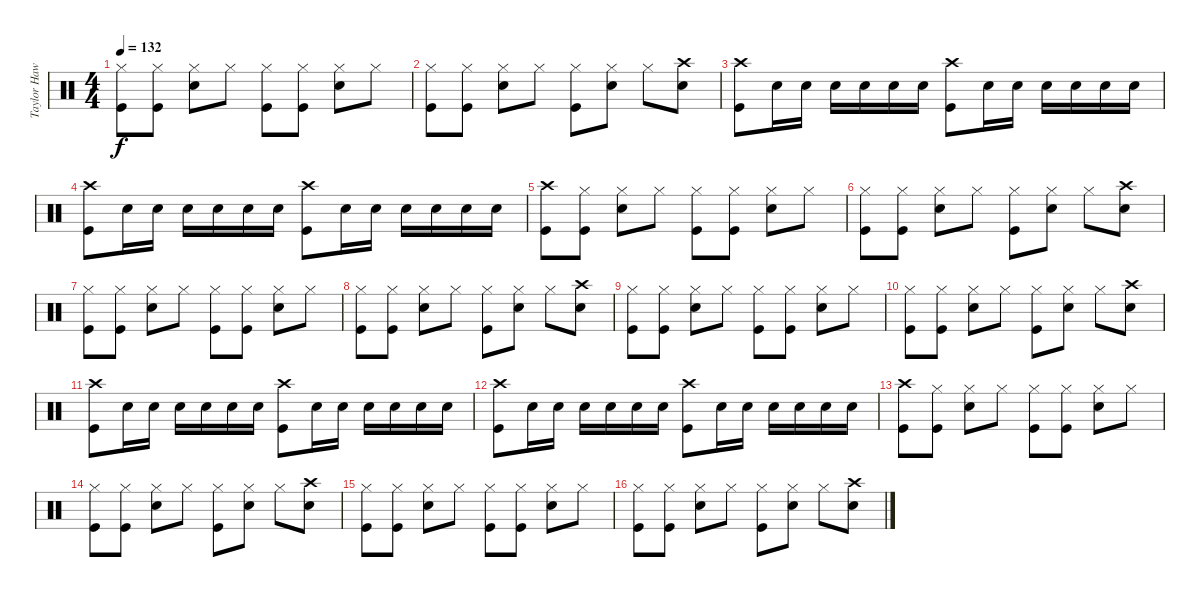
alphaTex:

\track ("Taylor Hawkins (Drums)" "Taylor Haw") {instrument percussion}
\staff {score}
\articulation defaults
\ts (4 4)
\tempo 132
\clef neutral
\ks c
("Kick (hit)" "Hi-Hat (closed)").8{dy f} ("Hi-Hat (closed)" "Kick (hit)").8 ("Hi-Hat (closed)" "Snare (hit) 2").8 "Hi-Hat (closed)".8 ("Hi-Hat (closed)" "Kick (hit)").8 ("Hi-Hat (closed)" "Kick (hit)").8 ("Hi-Hat (closed)" "Snare (hit) 2").8 "Hi-Hat (closed)".8 |
("Hi-Hat (closed)" "Kick (hit)").8 ("Hi-Hat (closed)" "Kick (hit)").8 ("Hi-Hat (closed)" "Snare (hit) 2").8 "Hi-Hat (closed)".8 ("Hi-Hat (closed)" "Kick (hit)").8 ("Hi-Hat (closed)" "Snare (hit) 2").8 "Hi-Hat (closed)".8 ("Crash high (hit)" "Snare (hit) 2").8 |
("Crash high (hit)" "Kick (hit)").8 "Snare (hit) 2".16 "Snare (hit) 2".16 "Snare (hit) 2".16 "Snare (hit) 2".16 "Snare (hit) 2".16 "Snare (hit) 2".16 ("Crash high (hit)" "Kick (hit)").8 "Snare (hit) 2".16 "Snare (hit) 2".16 "Snare (hit) 2".16 "Snare (hit) 2".16 "Snare (hit) 2".16 "Snare (hit) 2".16 |
("Crash high (hit)" "Kick (hit)").8 "Snare (hit) 2".16 "Snare (hit) 2".16 "Snare (hit) 2".16 "Snare (hit) 2".16 "Snare (hit) 2".16 "Snare (hit) 2".16 ("Crash high (hit)" "Kick (hit)").8 "Snare (hit) 2".16 "Snare (hit) 2".16 "Snare (hit) 2".16 "Snare (hit) 2".16 "Snare (hit) 2".16 "Snare (hit) 2".16 |
("Crash high (hit)" "Kick (hit)").8 ("Hi-Hat (closed)" "Kick (hit)").8 ("Hi-Hat (closed)" "Snare (hit) 2").8 "Hi-Hat (closed)".8 ("Hi-Hat (closed)" "Kick (hit)").8 ("Hi-Hat (closed)" "Kick (hit)").8 ("Hi-Hat (closed)" "Snare (hit) 2").8 "Hi-Hat (closed)".8 |
("Hi-Hat (closed)" "Kick (hit)").8 ("Hi-Hat (closed)" "Kick (hit)").8 ("Hi-Hat (closed)" "Snare (hit) 2").8 "Hi-Hat (closed)".8 ("Hi-Hat (closed)" "Kick (hit)").8 ("Hi-Hat (closed)" "Snare (hit) 2").8 "Hi-Hat (closed)".8 ("Crash high (hit)" "Snare (hit) 2").8 |
("Kick (hit)" "Hi-Hat (closed)").8 ("Hi-Hat (closed)" "Kick (hit)").8 ("Hi-Hat (closed)" "Snare (hit) 2").8 "Hi-Hat (closed)".8 ("Hi-Hat (closed)" "Kick (hit)").8 ("Hi-Hat (closed)" "Kick (hit)").8 ("Hi-Hat (closed)" "Snare (hit) 2").8 "Hi-Hat (closed)".8 |
("Hi-Hat (closed)" "Kick (hit)").8 ("Hi-Hat (closed)" "Kick (hit)").8 ("Hi-Hat (closed)" "Snare (hit) 2").8 "Hi-Hat (closed)".8 ("Hi-Hat (closed)" "Kick (hit)").8 ("Hi-Hat (closed)" "Snare (hit) 2").8 "Hi-Hat (closed)".8 ("Crash high (hit)" "Snare (hit) 2").8 |
("Kick (hit)" "Hi-Hat (closed)").8 ("Hi-Hat (closed)" "Kick (hit)").8 ("Hi-Hat (closed)" "Snare (hit) 2").8 "Hi-Hat (closed)".8 ("Hi-Hat (closed)" "Kick (hit)").8 ("Hi-Hat (closed)" "Kick (hit)").8 ("Hi-Hat (closed)" "Snare (hit) 2").8 "Hi-Hat (closed)".8 |
("Hi-Hat (closed)" "Kick (hit)").8 ("Hi-Hat (closed)" "Kick (hit)").8 ("Hi-Hat (closed)" "Snare (hit) 2").8 "Hi-Hat (closed)".8 ("Hi-Hat (closed)" "Kick (hit)").8 ("Hi-Hat (closed)" "Snare (hit) 2").8 "Hi-Hat (closed)".8 ("Crash high (hit)" "Snare (hit) 2").8 |
("Crash high (hit)" "Kick (hit)").8 "Snare (hit) 2".16 "Snare (hit) 2".16 "Snare (hit) 2".16 "Snare (hit) 2".16 "Snare (hit) 2".16 "Snare (hit) 2".16 ("Crash high (hit)" "Kick (hit)").8 "Snare (hit) 2".16 "Snare (hit) 2".16 "Snare (hit) 2".16 "Snare (hit) 2".16 "Snare (hit) 2".16 "Snare (hit) 2".16 |
("Crash high (hit)" "Kick (hit)").8 "Snare (hit) 2".16 "Snare (hit) 2".16 "Snare (hit) 2".16 "Snare (hit) 2".16 "Snare (hit) 2".16 "Snare (hit) 2".16 ("Crash high (hit)" "Kick (hit)").8 "Snare (hit) 2".16 "Snare (hit) 2".16 "Snare (hit) 2".16 "Snare (hit) 2".16 "Snare (hit) 2".16 "Snare (hit) 2".16 |
("Crash high (hit)" "Kick (hit)").8 ("Hi-Hat (closed)" "Kick (hit)").8 ("Hi-Hat (closed)" "Snare (hit) 2").8 "Hi-Hat (closed)".8 ("Hi-Hat (closed)" "Kick (hit)").8 ("Hi-Hat (closed)" "Kick (hit)").8 ("Hi-Hat (closed)" "Snare (hit) 2").8 "Hi-Hat (closed)".8 |
("Hi-Hat (closed)" "Kick (hit)").8 ("Hi-Hat (closed)" "Kick (hit)").8 ("Hi-Hat (closed)" "Snare (hit) 2").8 "Hi-Hat (closed)".8 ("Hi-Hat (closed)" "Kick (hit)").8 ("Hi-Hat (closed)" "Snare (hit) 2").8 "Hi-Hat (closed)".8 ("Crash high (hit)" "Snare (hit) 2").8 |
("Kick (hit)" "Hi-Hat (closed)").8 ("Hi-Hat (closed)" "Kick (hit)").8 ("Hi-Hat (closed)" "Snare (hit) 2").8 "Hi-Hat (closed)".8 ("Hi-Hat (closed)" "Kick (hit)").8 ("Hi-Hat (closed)" "Kick (hit)").8 ("Hi-Hat (closed)" "Snare (hit) 2").8 "Hi-Hat (closed)".8 |
("Hi-Hat (closed)" "Kick (hit)").8 ("Hi-Hat (closed)" "Kick (hit)").8 ("Hi-Hat (closed)" "Snare (hit) 2").8 "Hi-Hat (closed)".8 ("Hi-Hat (closed)" "Kick (hit)").8 ("Hi-Hat (closed)" "Snare (hit) 2").8 "Hi-Hat (closed)".8 ("Crash high (hit)" "Snare (hit) 2").8
